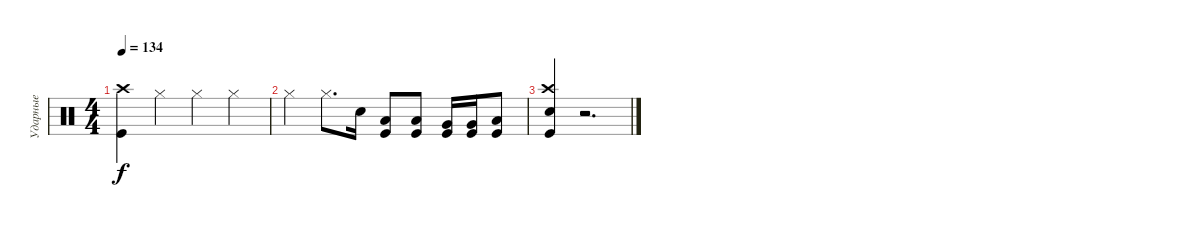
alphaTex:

\track ("Ударные" "Ударные") {instrument percussion}
\staff {score}
\articulation defaults
\ts (4 4)
\tempo 134
\clef neutral
\ks c
("Kick (hit)" "Crash high (hit)").4{dy f} "Hi-Hat (closed)".4 "Hi-Hat (closed)".4 "Hi-Hat (closed)".4 |
"Hi-Hat (closed)".4 "Hi-Hat (closed)".8{d} "Snare (hit) 2".16 ("Kick (hit)" "Low Tom (hit)").8 ("Kick (hit)" "Low Tom (hit)").8 ("Kick (hit)" "Very Low Tom (hit)").16 ("Kick (hit)" "Very Low Tom (hit)").16 ("Kick (hit)" "Low Floor Tom (hit)").8 |
("Kick (hit)" "Snare (hit) 2" "Crash high (hit)").4 r.2{d}
